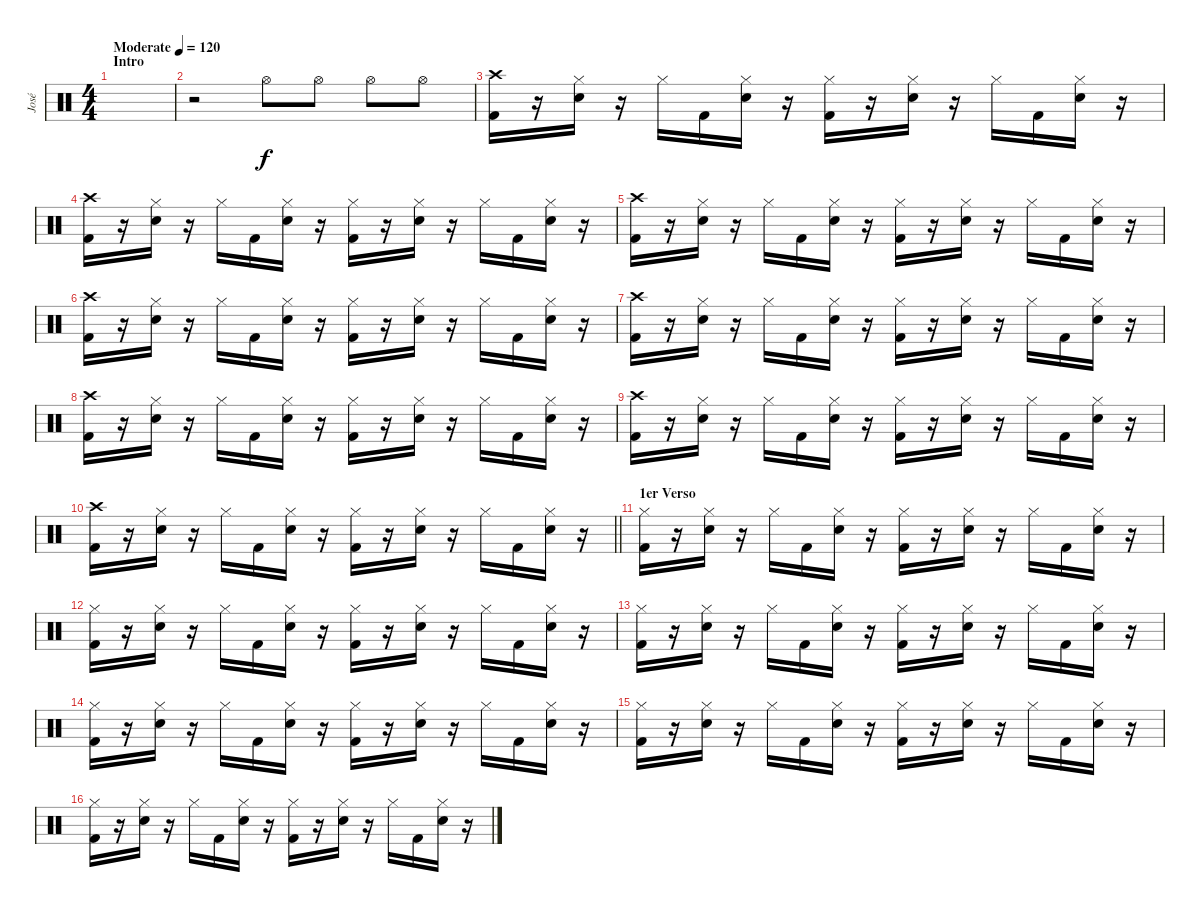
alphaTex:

\track ("José" "José") {instrument percussion}
\staff {score}
\articulation defaults
\ts (4 4)
\section ("" "Intro")
\tempo (120 "Moderate")
\clef neutral
\ks c
|
r.2 "Hi-Hat (open)".8 "Hi-Hat (open)".8 "Hi-Hat (open)".8 "Hi-Hat (open)".8 |
("Crash high (hit)" "Kick (hit) 2").16 r.16 ("Hi-Hat (closed)" "Electric Snare (hit)").16 r.16 "Hi-Hat (closed)".16 "Kick (hit) 2".16 ("Hi-Hat (closed)" "Electric Snare (hit)").16 r.16 ("Hi-Hat (closed)" "Kick (hit) 2").16 r.16 ("Hi-Hat (closed)" "Electric Snare (hit)").16 r.16 "Hi-Hat (closed)".16 "Kick (hit) 2".16 ("Hi-Hat (closed)" "Electric Snare (hit)").16 r.16 |
("Crash high (hit)" "Kick (hit) 2").16 r.16 ("Hi-Hat (closed)" "Electric Snare (hit)").16 r.16 "Hi-Hat (closed)".16 "Kick (hit) 2".16 ("Hi-Hat (closed)" "Electric Snare (hit)").16 r.16 ("Hi-Hat (closed)" "Kick (hit) 2").16 r.16 ("Hi-Hat (closed)" "Electric Snare (hit)").16 r.16 "Hi-Hat (closed)".16 "Kick (hit) 2".16 ("Hi-Hat (closed)" "Electric Snare (hit)").16 r.16 |
("Crash high (hit)" "Kick (hit) 2").16 r.16 ("Hi-Hat (closed)" "Electric Snare (hit)").16 r.16 "Hi-Hat (closed)".16 "Kick (hit) 2".16 ("Hi-Hat (closed)" "Electric Snare (hit)").16 r.16 ("Hi-Hat (closed)" "Kick (hit) 2").16 r.16 ("Hi-Hat (closed)" "Electric Snare (hit)").16 r.16 "Hi-Hat (closed)".16 "Kick (hit) 2".16 ("Hi-Hat (closed)" "Electric Snare (hit)").16 r.16 |
("Crash high (hit)" "Kick (hit) 2").16 r.16 ("Hi-Hat (closed)" "Electric Snare (hit)").16 r.16 "Hi-Hat (closed)".16 "Kick (hit) 2".16 ("Hi-Hat (closed)" "Electric Snare (hit)").16 r.16 ("Hi-Hat (closed)" "Kick (hit) 2").16 r.16 ("Hi-Hat (closed)" "Electric Snare (hit)").16 r.16 "Hi-Hat (closed)".16 "Kick (hit) 2".16 ("Hi-Hat (closed)" "Electric Snare (hit)").16 r.16 |
("Crash high (hit)" "Kick (hit) 2").16 r.16 ("Hi-Hat (closed)" "Electric Snare (hit)").16 r.16 "Hi-Hat (closed)".16 "Kick (hit) 2".16 ("Hi-Hat (closed)" "Electric Snare (hit)").16 r.16 ("Hi-Hat (closed)" "Kick (hit) 2").16 r.16 ("Hi-Hat (closed)" "Electric Snare (hit)").16 r.16 "Hi-Hat (closed)".16 "Kick (hit) 2".16 ("Hi-Hat (closed)" "Electric Snare (hit)").16 r.16 |
("Crash high (hit)" "Kick (hit) 2").16 r.16 ("Hi-Hat (closed)" "Electric Snare (hit)").16 r.16 "Hi-Hat (closed)".16 "Kick (hit) 2".16 ("Hi-Hat (closed)" "Electric Snare (hit)").16 r.16 ("Hi-Hat (closed)" "Kick (hit) 2").16 r.16 ("Hi-Hat (closed)" "Electric Snare (hit)").16 r.16 "Hi-Hat (closed)".16 "Kick (hit) 2".16 ("Hi-Hat (closed)" "Electric Snare (hit)").16 r.16 |
("Crash high (hit)" "Kick (hit) 2").16 r.16 ("Hi-Hat (closed)" "Electric Snare (hit)").16 r.16 "Hi-Hat (closed)".16 "Kick (hit) 2".16 ("Hi-Hat (closed)" "Electric Snare (hit)").16 r.16 ("Hi-Hat (closed)" "Kick (hit) 2").16 r.16 ("Hi-Hat (closed)" "Electric Snare (hit)").16 r.16 "Hi-Hat (closed)".16 "Kick (hit) 2".16 ("Hi-Hat (closed)" "Electric Snare (hit)").16 r.16 |
\barLineRight lightlight
("Crash high (hit)" "Kick (hit) 2").16 r.16 ("Hi-Hat (closed)" "Electric Snare (hit)").16 r.16 "Hi-Hat (closed)".16 "Kick (hit) 2".16 ("Hi-Hat (closed)" "Electric Snare (hit)").16 r.16 ("Hi-Hat (closed)" "Kick (hit) 2").16 r.16 ("Hi-Hat (closed)" "Electric Snare (hit)").16 r.16 "Hi-Hat (closed)".16 "Kick (hit) 2".16 ("Hi-Hat (closed)" "Electric Snare (hit)").16 r.16 |
\section ("" "1er Verso")
("Hi-Hat (closed)" "Kick (hit) 2").16 r.16 ("Hi-Hat (closed)" "Electric Snare (hit)").16 r.16 "Hi-Hat (closed)".16 "Kick (hit) 2".16 ("Hi-Hat (closed)" "Electric Snare (hit)").16 r.16 ("Hi-Hat (closed)" "Kick (hit) 2").16 r.16 ("Hi-Hat (closed)" "Electric Snare (hit)").16 r.16 "Hi-Hat (closed)".16 "Kick (hit) 2".16 ("Hi-Hat (closed)" "Electric Snare (hit)").16 r.16 |
("Hi-Hat (closed)" "Kick (hit) 2").16 r.16 ("Hi-Hat (closed)" "Electric Snare (hit)").16 r.16 "Hi-Hat (closed)".16 "Kick (hit) 2".16 ("Hi-Hat (closed)" "Electric Snare (hit)").16 r.16 ("Hi-Hat (closed)" "Kick (hit) 2").16 r.16 ("Hi-Hat (closed)" "Electric Snare (hit)").16 r.16 "Hi-Hat (closed)".16 "Kick (hit) 2".16 ("Hi-Hat (closed)" "Electric Snare (hit)").16 r.16 |
("Hi-Hat (closed)" "Kick (hit) 2").16 r.16 ("Hi-Hat (closed)" "Electric Snare (hit)").16 r.16 "Hi-Hat (closed)".16 "Kick (hit) 2".16 ("Hi-Hat (closed)" "Electric Snare (hit)").16 r.16 ("Hi-Hat (closed)" "Kick (hit) 2").16 r.16 ("Hi-Hat (closed)" "Electric Snare (hit)").16 r.16 "Hi-Hat (closed)".16 "Kick (hit) 2".16 ("Hi-Hat (closed)" "Electric Snare (hit)").16 r.16 |
("Hi-Hat (closed)" "Kick (hit) 2").16 r.16 ("Hi-Hat (closed)" "Electric Snare (hit)").16 r.16 "Hi-Hat (closed)".16 "Kick (hit) 2".16 ("Hi-Hat (closed)" "Electric Snare (hit)").16 r.16 ("Hi-Hat (closed)" "Kick (hit) 2").16 r.16 ("Hi-Hat (closed)" "Electric Snare (hit)").16 r.16 "Hi-Hat (closed)".16 "Kick (hit) 2".16 ("Hi-Hat (closed)" "Electric Snare (hit)").16 r.16 |
("Hi-Hat (closed)" "Kick (hit) 2").16 r.16 ("Hi-Hat (closed)" "Electric Snare (hit)").16 r.16 "Hi-Hat (closed)".16 "Kick (hit) 2".16 ("Hi-Hat (closed)" "Electric Snare (hit)").16 r.16 ("Hi-Hat (closed)" "Kick (hit) 2").16 r.16 ("Hi-Hat (closed)" "Electric Snare (hit)").16 r.16 "Hi-Hat (closed)".16 "Kick (hit) 2".16 ("Hi-Hat (closed)" "Electric Snare (hit)").16 r.16 |
("Hi-Hat (closed)" "Kick (hit) 2").16 r.16 ("Hi-Hat (closed)" "Electric Snare (hit)").16 r.16 "Hi-Hat (closed)".16 "Kick (hit) 2".16 ("Hi-Hat (closed)" "Electric Snare (hit)").16 r.16 ("Hi-Hat (closed)" "Kick (hit) 2").16 r.16 ("Hi-Hat (closed)" "Electric Snare (hit)").16 r.16 "Hi-Hat (closed)".16 "Kick (hit) 2".16 ("Hi-Hat (closed)" "Electric Snare (hit)").16 r.16
